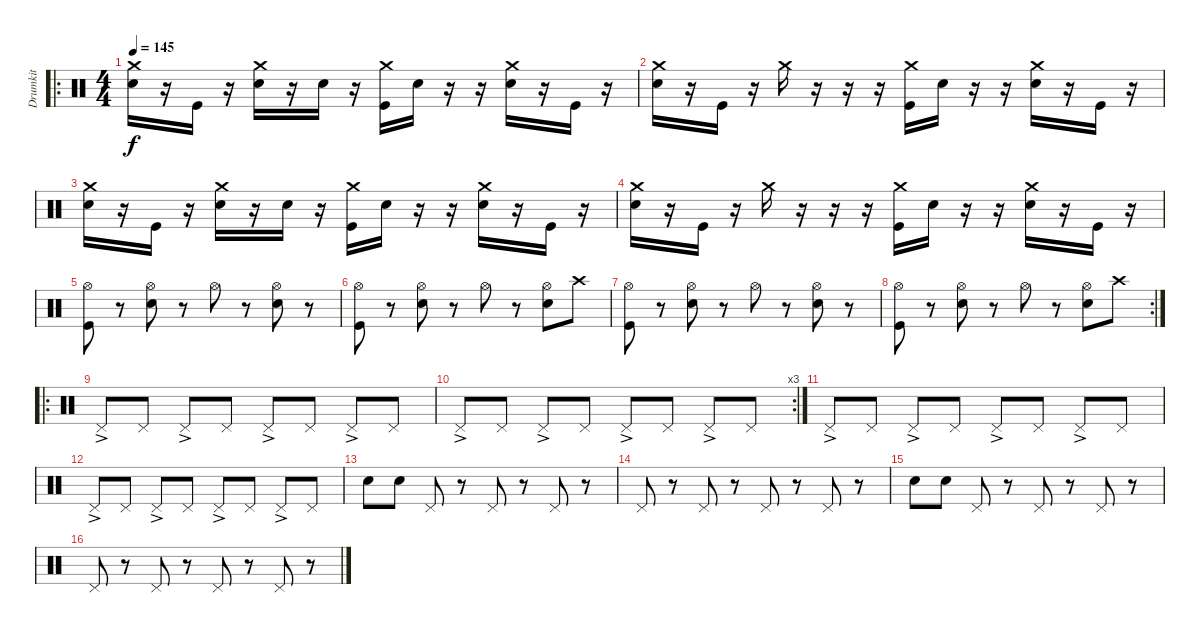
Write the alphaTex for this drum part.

\track ("Drumkit" "Drumkit") {instrument percussion}
\staff {score}
\articulation defaults
\ro
\ts (4 4)
\tempo 145
\clef neutral
\ks c
("Crash medium (hit)" "Snare (hit) 2").16{dy f} r.16 "Kick (hit)".16 r.16 ("Crash medium (hit)" "Snare (hit) 2").16 r.16 "Snare (hit) 2".16 r.16 ("Crash medium (hit)" "Kick (hit)").16 "Snare (hit) 2".16 r.16 r.16 ("Crash medium (hit)" "Snare (hit) 2").16 r.16 "Kick (hit)".16 r.16 |
("Crash medium (hit)" "Snare (hit) 2").16 r.16 "Kick (hit)".16 r.16 "Crash medium (hit)".16 r.16 r.16 r.16 ("Crash medium (hit)" "Kick (hit)").16 "Snare (hit) 2".16 r.16 r.16 ("Crash medium (hit)" "Snare (hit) 2").16 r.16 "Kick (hit)".16 r.16 |
("Crash medium (hit)" "Snare (hit) 2").16 r.16 "Kick (hit)".16 r.16 ("Crash medium (hit)" "Snare (hit) 2").16 r.16 "Snare (hit) 2".16 r.16 ("Crash medium (hit)" "Kick (hit)").16 "Snare (hit) 2".16 r.16 r.16 ("Crash medium (hit)" "Snare (hit) 2").16 r.16 "Kick (hit)".16 r.16 |
("Crash medium (hit)" "Snare (hit) 2").16 r.16 "Kick (hit)".16 r.16 "Crash medium (hit)".16 r.16 r.16 r.16 ("Crash medium (hit)" "Kick (hit)").16 "Snare (hit) 2".16 r.16 r.16 ("Crash medium (hit)" "Snare (hit) 2").16 r.16 "Kick (hit)".16 r.16 |
("Kick (hit)" "Hi-Hat (open)").8 r.8 ("Hi-Hat (open)" "Snare (hit) 2").8 r.8 "Hi-Hat (open)".8 r.8 ("Hi-Hat (open)" "Snare (hit) 2").8 r.8 |
("Kick (hit)" "Hi-Hat (open)").8 r.8 ("Hi-Hat (open)" "Snare (hit) 2").8 r.8 "Hi-Hat (open)".8 r.8 ("Hi-Hat (open)" "Snare (hit) 2").8 "Crash high (hit)".8 |
("Kick (hit)" "Hi-Hat (open)").8 r.8 ("Hi-Hat (open)" "Snare (hit) 2").8 r.8 "Hi-Hat (open)".8 r.8 ("Hi-Hat (open)" "Snare (hit) 2").8 r.8 |
\rc 2
("Kick (hit)" "Hi-Hat (open)").8 r.8 ("Hi-Hat (open)" "Snare (hit) 2").8 r.8 "Hi-Hat (open)".8 r.8 ("Hi-Hat (open)" "Snare (hit) 2").8 "Crash high (hit)".8 |
\ro "Pedal Hi-Hat (hit)"{ac}.8 "Pedal Hi-Hat (hit)".8 "Pedal Hi-Hat (hit)"{ac}.8 "Pedal Hi-Hat (hit)".8 "Pedal Hi-Hat (hit)"{ac}.8 "Pedal Hi-Hat (hit)".8 "Pedal Hi-Hat (hit)"{ac}.8 "Pedal Hi-Hat (hit)".8
|
\rc 3 "Pedal Hi-Hat (hit)"{ac}.8 "Pedal Hi-Hat (hit)".8 "Pedal Hi-Hat (hit)"{ac}.8 "Pedal Hi-Hat (hit)".8 "Pedal Hi-Hat (hit)"{ac}.8 "Pedal Hi-Hat (hit)".8 "Pedal Hi-Hat (hit)"{ac}.8 "Pedal Hi-Hat (hit)".8
|
"Pedal Hi-Hat (hit)"{ac}.8 "Pedal Hi-Hat (hit)".8 "Pedal Hi-Hat (hit)"{ac}.8 "Pedal Hi-Hat (hit)".8 "Pedal Hi-Hat (hit)"{ac}.8 "Pedal Hi-Hat (hit)".8 "Pedal Hi-Hat (hit)"{ac}.8 "Pedal Hi-Hat (hit)".8 |
"Pedal Hi-Hat (hit)"{ac}.8 "Pedal Hi-Hat (hit)".8 "Pedal Hi-Hat (hit)"{ac}.8 "Pedal Hi-Hat (hit)".8 "Pedal Hi-Hat (hit)"{ac}.8 "Pedal Hi-Hat (hit)".8 "Pedal Hi-Hat (hit)"{ac}.8 "Pedal Hi-Hat (hit)".8 |
"Snare (hit) 2".8 "Snare (hit) 2".8 "Pedal Hi-Hat (hit)".8 r.8 "Pedal Hi-Hat (hit)".8 r.8 "Pedal Hi-Hat (hit)".8 r.8 |
"Pedal Hi-Hat (hit)".8 r.8 "Pedal Hi-Hat (hit)".8 r.8 "Pedal Hi-Hat (hit)".8 r.8 "Pedal Hi-Hat (hit)".8 r.8 |
"Snare (hit) 2".8 "Snare (hit) 2".8 "Pedal Hi-Hat (hit)".8 r.8 "Pedal Hi-Hat (hit)".8 r.8 "Pedal Hi-Hat (hit)".8 r.8 |
"Pedal Hi-Hat (hit)".8 r.8 "Pedal Hi-Hat (hit)".8 r.8 "Pedal Hi-Hat (hit)".8 r.8 "Pedal Hi-Hat (hit)".8 r.8
